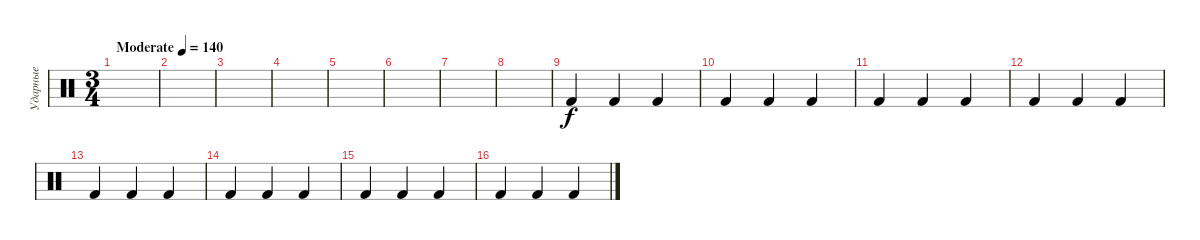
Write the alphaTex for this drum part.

\track ("Ударные" "Ударные") {instrument percussion}
\staff {score}
\articulation defaults
\ts (3 4)
\tempo (140 "Moderate")
\clef neutral
\ks c
|
|
|
|
|
|
|
|
"Kick (hit) 2".4 "Kick (hit) 2".4 "Kick (hit) 2".4 |
"Kick (hit) 2".4 "Kick (hit) 2".4 "Kick (hit) 2".4 |
"Kick (hit) 2".4 "Kick (hit) 2".4 "Kick (hit) 2".4 |
"Kick (hit) 2".4 "Kick (hit) 2".4 "Kick (hit) 2".4 |
"Kick (hit) 2".4 "Kick (hit) 2".4 "Kick (hit) 2".4 |
"Kick (hit) 2".4 "Kick (hit) 2".4 "Kick (hit) 2".4 |
"Kick (hit) 2".4 "Kick (hit) 2".4 "Kick (hit) 2".4 |
"Kick (hit) 2".4 "Kick (hit) 2".4 "Kick (hit) 2".4
